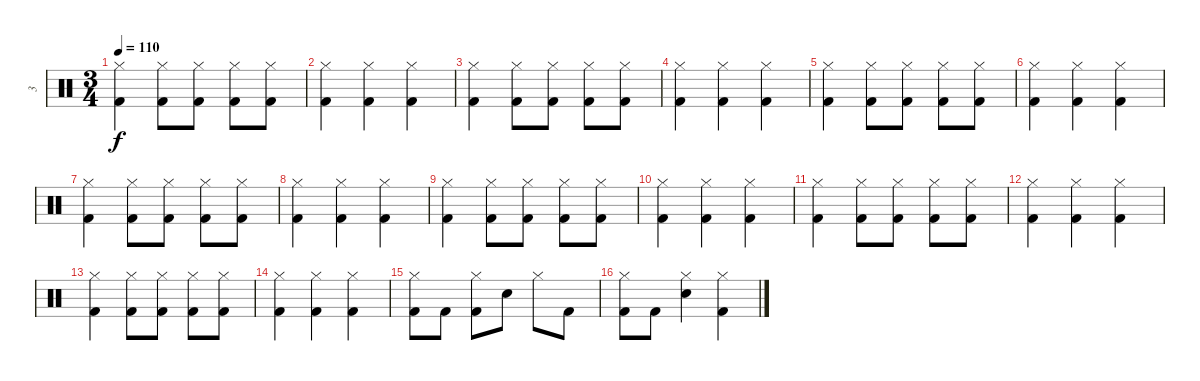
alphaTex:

\track ("3" "3") {instrument percussion}
\staff {score}
\articulation defaults
\ts (3 4)
\tempo 110
\clef neutral
\ks c
("Hi-Hat (closed)" "Kick (hit) 2").4{dy f} ("Hi-Hat (closed)" "Kick (hit) 2").8 ("Hi-Hat (closed)" "Kick (hit) 2").8 ("Hi-Hat (closed)" "Kick (hit) 2").8 ("Hi-Hat (closed)" "Kick (hit) 2").8 |
("Hi-Hat (closed)" "Kick (hit) 2").4 ("Hi-Hat (closed)" "Kick (hit) 2").4 ("Hi-Hat (closed)" "Kick (hit) 2").4 |
("Hi-Hat (closed)" "Kick (hit) 2").4 ("Hi-Hat (closed)" "Kick (hit) 2").8 ("Hi-Hat (closed)" "Kick (hit) 2").8 ("Hi-Hat (closed)" "Kick (hit) 2").8 ("Hi-Hat (closed)" "Kick (hit) 2").8 |
("Hi-Hat (closed)" "Kick (hit) 2").4 ("Hi-Hat (closed)" "Kick (hit) 2").4 ("Hi-Hat (closed)" "Kick (hit) 2").4 |
("Hi-Hat (closed)" "Kick (hit) 2").4 ("Hi-Hat (closed)" "Kick (hit) 2").8 ("Hi-Hat (closed)" "Kick (hit) 2").8 ("Hi-Hat (closed)" "Kick (hit) 2").8 ("Hi-Hat (closed)" "Kick (hit) 2").8 |
("Hi-Hat (closed)" "Kick (hit) 2").4 ("Hi-Hat (closed)" "Kick (hit) 2").4 ("Hi-Hat (closed)" "Kick (hit) 2").4 |
("Hi-Hat (closed)" "Kick (hit) 2").4 ("Hi-Hat (closed)" "Kick (hit) 2").8 ("Hi-Hat (closed)" "Kick (hit) 2").8 ("Hi-Hat (closed)" "Kick (hit) 2").8 ("Hi-Hat (closed)" "Kick (hit) 2").8 |
("Hi-Hat (closed)" "Kick (hit) 2").4 ("Hi-Hat (closed)" "Kick (hit) 2").4 ("Hi-Hat (closed)" "Kick (hit) 2").4 |
("Hi-Hat (closed)" "Kick (hit) 2").4 ("Hi-Hat (closed)" "Kick (hit) 2").8 ("Hi-Hat (closed)" "Kick (hit) 2").8 ("Hi-Hat (closed)" "Kick (hit) 2").8 ("Hi-Hat (closed)" "Kick (hit) 2").8 |
("Hi-Hat (closed)" "Kick (hit) 2").4 ("Hi-Hat (closed)" "Kick (hit) 2").4 ("Hi-Hat (closed)" "Kick (hit) 2").4 |
("Hi-Hat (closed)" "Kick (hit) 2").4 ("Hi-Hat (closed)" "Kick (hit) 2").8 ("Hi-Hat (closed)" "Kick (hit) 2").8 ("Hi-Hat (closed)" "Kick (hit) 2").8 ("Hi-Hat (closed)" "Kick (hit) 2").8 |
("Hi-Hat (closed)" "Kick (hit) 2").4 ("Hi-Hat (closed)" "Kick (hit) 2").4 ("Hi-Hat (closed)" "Kick (hit) 2").4 |
("Hi-Hat (closed)" "Kick (hit) 2").4 ("Hi-Hat (closed)" "Kick (hit) 2").8 ("Hi-Hat (closed)" "Kick (hit) 2").8 ("Hi-Hat (closed)" "Kick (hit) 2").8 ("Hi-Hat (closed)" "Kick (hit) 2").8 |
("Hi-Hat (closed)" "Kick (hit) 2").4 ("Hi-Hat (closed)" "Kick (hit) 2").4 ("Hi-Hat (closed)" "Kick (hit) 2").4 |
("Hi-Hat (closed)" "Kick (hit) 2").8 "Kick (hit) 2".8 ("Hi-Hat (closed)" "Kick (hit) 2").8 "Snare (hit) 2".8 "Hi-Hat (closed)".8 "Kick (hit) 2".8 |
("Hi-Hat (closed)" "Kick (hit) 2").8 "Kick (hit) 2".8 ("Hi-Hat (closed)" "Snare (hit) 2").4 ("Hi-Hat (closed)" "Kick (hit) 2").4
